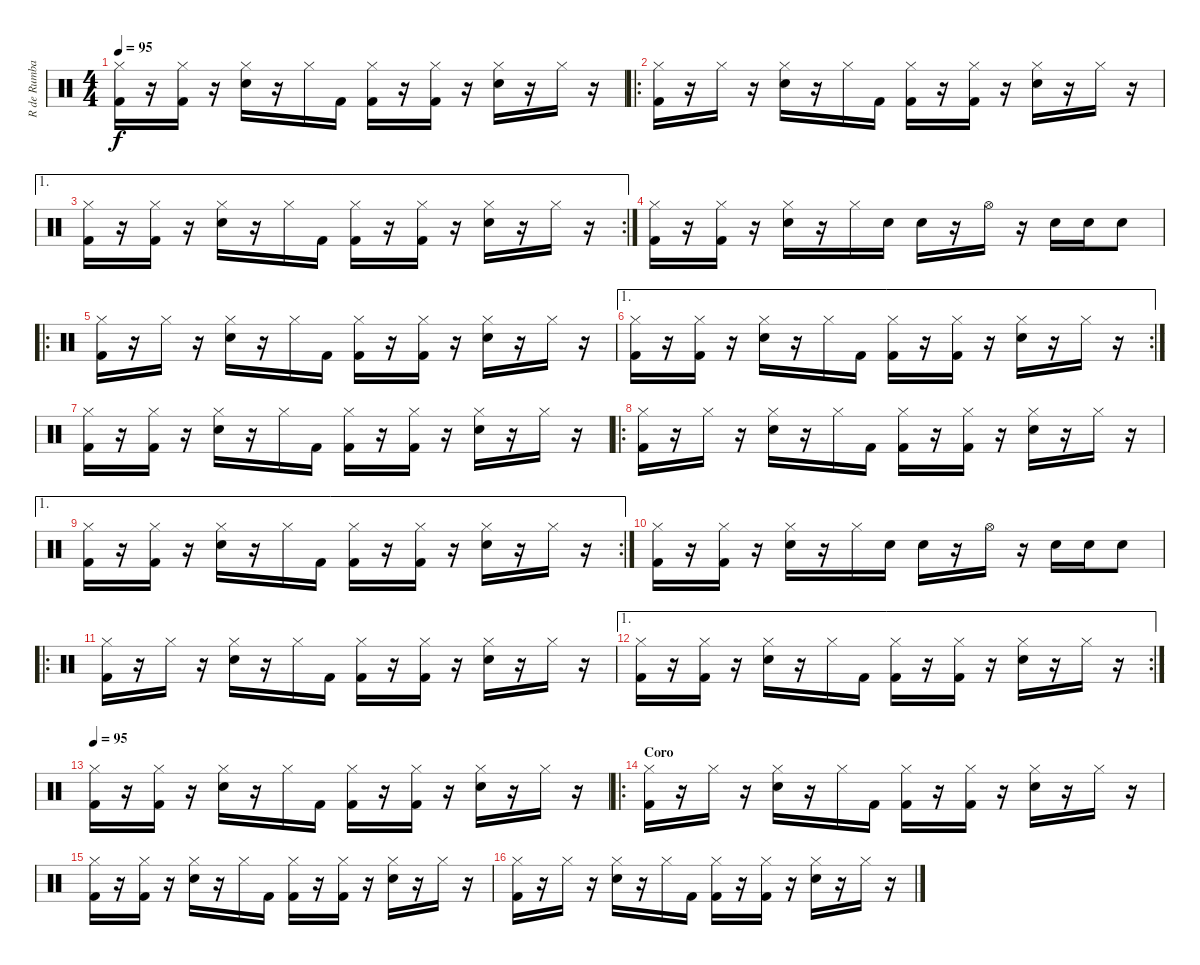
\track ("R de Rumba" "R de Rumba") {instrument percussion}
\staff {score}
\articulation defaults
\ts (4 4)
\tempo 95
\clef neutral
\ks c
("Hi-Hat (closed)" "Kick (hit) 2").16{dy f} r.16 ("Hi-Hat (closed)" "Kick (hit) 2").16 r.16 ("Hi-Hat (closed)" "Snare (hit) 2").16 r.16 "Hi-Hat (closed)".16 "Kick (hit) 2".16 ("Hi-Hat (closed)" "Kick (hit) 2").16 r.16 ("Hi-Hat (closed)" "Kick (hit) 2").16 r.16 ("Hi-Hat (closed)" "Snare (hit) 2").16 r.16 "Hi-Hat (closed)".16 r.16 |
\ro
("Hi-Hat (closed)" "Kick (hit) 2").16 r.16 "Hi-Hat (closed)".16 r.16 ("Hi-Hat (closed)" "Snare (hit) 2").16 r.16 "Hi-Hat (closed)".16 "Kick (hit) 2".16 ("Hi-Hat (closed)" "Kick (hit) 2").16 r.16 ("Hi-Hat (closed)" "Kick (hit) 2").16 r.16 ("Hi-Hat (closed)" "Snare (hit) 2").16 r.16 "Hi-Hat (closed)".16 r.16 |
\ae 1
\rc 2
("Hi-Hat (closed)" "Kick (hit) 2").16 r.16 ("Hi-Hat (closed)" "Kick (hit) 2").16 r.16 ("Hi-Hat (closed)" "Snare (hit) 2").16 r.16 "Hi-Hat (closed)".16 "Kick (hit) 2".16 ("Hi-Hat (closed)" "Kick (hit) 2").16 r.16 ("Hi-Hat (closed)" "Kick (hit) 2").16 r.16 ("Hi-Hat (closed)" "Snare (hit) 2").16 r.16 "Hi-Hat (closed)".16 r.16 |
("Hi-Hat (closed)" "Kick (hit) 2").16 r.16 ("Hi-Hat (closed)" "Kick (hit) 2").16 r.16 ("Hi-Hat (closed)" "Snare (hit) 2").16 r.16 "Hi-Hat (closed)".16 "Snare (hit) 2".16 "Snare (hit) 2".16 r.16 "Hi-Hat (open)".16 r.16 "Snare (hit) 2".16 "Snare (hit) 2".16 "Snare (hit) 2".8 |
\ro
("Hi-Hat (closed)" "Kick (hit) 2").16 r.16 "Hi-Hat (closed)".16 r.16 ("Hi-Hat (closed)" "Snare (hit) 2").16 r.16 "Hi-Hat (closed)".16 "Kick (hit) 2".16 ("Hi-Hat (closed)" "Kick (hit) 2").16 r.16 ("Hi-Hat (closed)" "Kick (hit) 2").16 r.16 ("Hi-Hat (closed)" "Snare (hit) 2").16 r.16 "Hi-Hat (closed)".16 r.16 |
\ae 1
\rc 2
("Hi-Hat (closed)" "Kick (hit) 2").16 r.16 ("Hi-Hat (closed)" "Kick (hit) 2").16 r.16 ("Hi-Hat (closed)" "Snare (hit) 2").16 r.16 "Hi-Hat (closed)".16 "Kick (hit) 2".16 ("Hi-Hat (closed)" "Kick (hit) 2").16 r.16 ("Hi-Hat (closed)" "Kick (hit) 2").16 r.16 ("Hi-Hat (closed)" "Snare (hit) 2").16 r.16 "Hi-Hat (closed)".16 r.16 |
("Hi-Hat (closed)" "Kick (hit) 2").16 r.16 ("Hi-Hat (closed)" "Kick (hit) 2").16 r.16 ("Hi-Hat (closed)" "Snare (hit) 2").16 r.16 "Hi-Hat (closed)".16 "Kick (hit) 2".16 ("Hi-Hat (closed)" "Kick (hit) 2").16 r.16 ("Hi-Hat (closed)" "Kick (hit) 2").16 r.16 ("Hi-Hat (closed)" "Snare (hit) 2").16 r.16 "Hi-Hat (closed)".16 r.16 |
\ro
("Hi-Hat (closed)" "Kick (hit) 2").16 r.16 "Hi-Hat (closed)".16 r.16 ("Hi-Hat (closed)" "Snare (hit) 2").16 r.16 "Hi-Hat (closed)".16 "Kick (hit) 2".16 ("Hi-Hat (closed)" "Kick (hit) 2").16 r.16 ("Hi-Hat (closed)" "Kick (hit) 2").16 r.16 ("Hi-Hat (closed)" "Snare (hit) 2").16 r.16 "Hi-Hat (closed)".16 r.16 |
\ae 1
\rc 2
("Hi-Hat (closed)" "Kick (hit) 2").16 r.16 ("Hi-Hat (closed)" "Kick (hit) 2").16 r.16 ("Hi-Hat (closed)" "Snare (hit) 2").16 r.16 "Hi-Hat (closed)".16 "Kick (hit) 2".16 ("Hi-Hat (closed)" "Kick (hit) 2").16 r.16 ("Hi-Hat (closed)" "Kick (hit) 2").16 r.16 ("Hi-Hat (closed)" "Snare (hit) 2").16 r.16 "Hi-Hat (closed)".16 r.16 |
("Hi-Hat (closed)" "Kick (hit) 2").16 r.16 ("Hi-Hat (closed)" "Kick (hit) 2").16 r.16 ("Hi-Hat (closed)" "Snare (hit) 2").16 r.16 "Hi-Hat (closed)".16 "Snare (hit) 2".16 "Snare (hit) 2".16 r.16 "Hi-Hat (open)".16 r.16 "Snare (hit) 2".16 "Snare (hit) 2".16 "Snare (hit) 2".8 |
\ro
("Hi-Hat (closed)" "Kick (hit) 2").16 r.16 "Hi-Hat (closed)".16 r.16 ("Hi-Hat (closed)" "Snare (hit) 2").16 r.16 "Hi-Hat (closed)".16 "Kick (hit) 2".16 ("Hi-Hat (closed)" "Kick (hit) 2").16 r.16 ("Hi-Hat (closed)" "Kick (hit) 2").16 r.16 ("Hi-Hat (closed)" "Snare (hit) 2").16 r.16 "Hi-Hat (closed)".16 r.16 |
\ae 1
\rc 2
("Hi-Hat (closed)" "Kick (hit) 2").16 r.16 ("Hi-Hat (closed)" "Kick (hit) 2").16 r.16 ("Hi-Hat (closed)" "Snare (hit) 2").16 r.16 "Hi-Hat (closed)".16 "Kick (hit) 2".16 ("Hi-Hat (closed)" "Kick (hit) 2").16 r.16 ("Hi-Hat (closed)" "Kick (hit) 2").16 r.16 ("Hi-Hat (closed)" "Snare (hit) 2").16 r.16 "Hi-Hat (closed)".16 r.16 |
\tempo 95
("Hi-Hat (closed)" "Kick (hit) 2").16 r.16 ("Hi-Hat (closed)" "Kick (hit) 2").16 r.16 ("Hi-Hat (closed)" "Snare (hit) 2").16 r.16 "Hi-Hat (closed)".16 "Kick (hit) 2".16 ("Hi-Hat (closed)" "Kick (hit) 2").16 r.16 ("Hi-Hat (closed)" "Kick (hit) 2").16 r.16 ("Hi-Hat (closed)" "Snare (hit) 2").16 r.16 "Hi-Hat (closed)".16 r.16 |
\ro
\section ("" "Coro")
("Hi-Hat (closed)" "Kick (hit) 2").16 r.16 "Hi-Hat (closed)".16 r.16 ("Hi-Hat (closed)" "Snare (hit) 2").16 r.16 "Hi-Hat (closed)".16 "Kick (hit) 2".16 ("Hi-Hat (closed)" "Kick (hit) 2").16 r.16 ("Hi-Hat (closed)" "Kick (hit) 2").16 r.16 ("Hi-Hat (closed)" "Snare (hit) 2").16 r.16 "Hi-Hat (closed)".16 r.16 |
("Hi-Hat (closed)" "Kick (hit) 2").16 r.16 ("Hi-Hat (closed)" "Kick (hit) 2").16 r.16 ("Hi-Hat (closed)" "Snare (hit) 2").16 r.16 "Hi-Hat (closed)".16 "Kick (hit) 2".16 ("Hi-Hat (closed)" "Kick (hit) 2").16 r.16 ("Hi-Hat (closed)" "Kick (hit) 2").16 r.16 ("Hi-Hat (closed)" "Snare (hit) 2").16 r.16 "Hi-Hat (closed)".16 r.16 |
("Hi-Hat (closed)" "Kick (hit) 2").16 r.16 "Hi-Hat (closed)".16 r.16 ("Hi-Hat (closed)" "Snare (hit) 2").16 r.16 "Hi-Hat (closed)".16 "Kick (hit) 2".16 ("Hi-Hat (closed)" "Kick (hit) 2").16 r.16 ("Hi-Hat (closed)" "Kick (hit) 2").16 r.16 ("Hi-Hat (closed)" "Snare (hit) 2").16 r.16 "Hi-Hat (closed)".16 r.16
